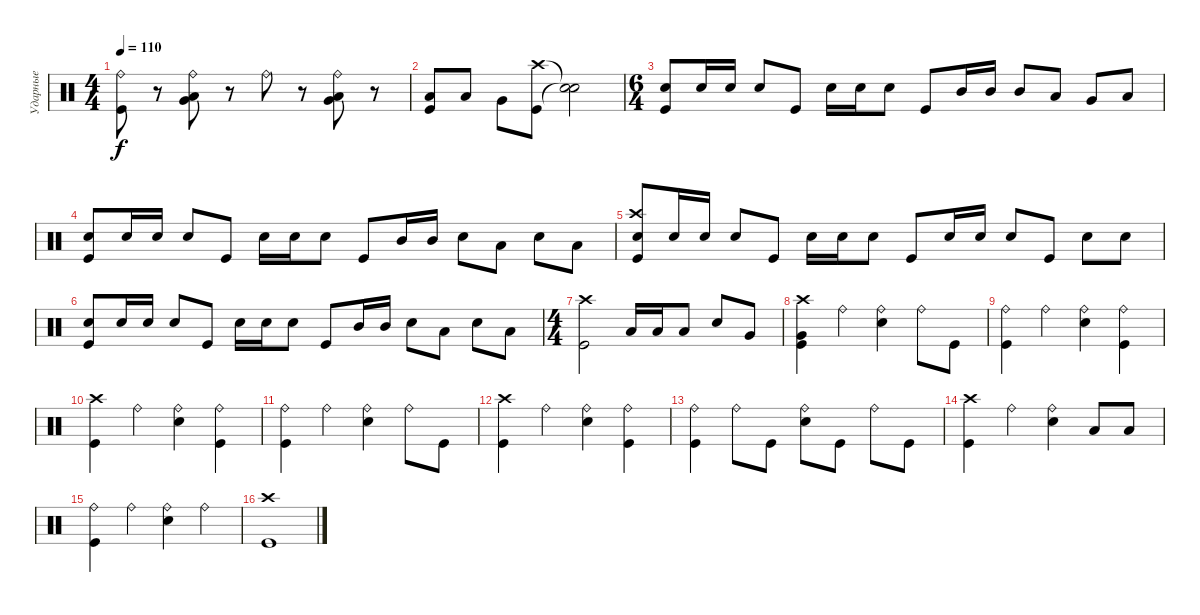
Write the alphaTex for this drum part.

\track ("Ударные" "Ударные") {instrument percussion}
\staff {score}
\articulation defaults
\ts (4 4)
\tempo 110
\clef neutral
\ks c
("Ride (bell)" "Kick (hit)").8{dy f} r.8 ("Ride (bell)" "Very Low Tom (hit)" "Low Tom (hit)").8 r.8 "Ride (bell)".8 r.8 ("Ride (bell)" "Very Low Tom (hit)" "Low Tom (hit)").8 r.8 |
("Low Tom (hit)" "Kick (hit)").8 "Low Tom (hit)".8 "Very Low Tom (hit)".8 ("Crash high (hit)" "Kick (hit)").8 ("Snare (hit)"{t} "Snare (hit)"{t}).2 |
\ts (6 4)
("Electric Snare (hit)" "Kick (hit)").8 "Electric Snare (hit)".16 "Electric Snare (hit)".16 "Electric Snare (hit)".8 "Kick (hit)".8 "Electric Snare (hit)".16 "Electric Snare (hit)".16 "Electric Snare (hit)".8 "Kick (hit)".8 "Mid Tom (hit)".16 "Mid Tom (hit)".16 "Mid Tom (hit)".8 "Low Tom (hit)".8 "Very Low Tom (hit)".8 "Low Tom (hit)".8 |
("Electric Snare (hit)" "Kick (hit)").8 "Electric Snare (hit)".16 "Electric Snare (hit)".16 "Electric Snare (hit)".8 "Kick (hit)".8 "Electric Snare (hit)".16 "Electric Snare (hit)".16 "Electric Snare (hit)".8 "Kick (hit)".8 "Mid Tom (hit)".16 "Mid Tom (hit)".16 "Electric Snare (hit)".8 "Low Tom (hit)".8 "Electric Snare (hit)".8 "Low Tom (hit)".8 |
("Crash high (hit)" "Electric Snare (hit)" "Kick (hit)").8 "Electric Snare (hit)".16 "Electric Snare (hit)".16 "Electric Snare (hit)".8 "Kick (hit)".8 "Electric Snare (hit)".16 "Electric Snare (hit)".16 "Electric Snare (hit)".8 "Kick (hit)".8 "Electric Snare (hit)".16 "Electric Snare (hit)".16 "Electric Snare (hit)".8 "Kick (hit)".8 "Electric Snare (hit)".8 "Electric Snare (hit)".8 |
("Electric Snare (hit)" "Kick (hit)").8 "Electric Snare (hit)".16 "Electric Snare (hit)".16 "Electric Snare (hit)".8 "Kick (hit)".8 "Electric Snare (hit)".16 "Electric Snare (hit)".16 "Electric Snare (hit)".8 "Kick (hit)".8 "Mid Tom (hit)".16 "Mid Tom (hit)".16 "Electric Snare (hit)".8 "Low Tom (hit)".8 "Electric Snare (hit)".8 "Low Tom (hit)".8 |
\ts (4 4)
("Crash high (hit)" "Kick (hit)").2 "Low Tom (hit)".16 "Low Tom (hit)".16 "Low Tom (hit)".8 "Electric Snare (hit)".8 "Very Low Tom (hit)".8 |
("Crash high (hit)" "Very Low Tom (hit)" "Kick (hit)").4 "Ride (bell)".4 ("Ride (bell)" "Electric Snare (hit)").4 "Ride (bell)".8 "Kick (hit)".8 |
("Ride (bell)" "Kick (hit)").4 "Ride (bell)".4 ("Ride (bell)" "Electric Snare (hit)").4 ("Ride (bell)" "Kick (hit)").4 |
("Crash high (hit)" "Kick (hit)").4 "Ride (bell)".4 ("Ride (bell)" "Electric Snare (hit)").4 ("Ride (bell)" "Kick (hit)").4 |
("Ride (bell)" "Kick (hit)").4 "Ride (bell)".4 ("Ride (bell)" "Electric Snare (hit)").4 "Ride (bell)".8 "Kick (hit)".8 |
("Crash high (hit)" "Kick (hit)").4 "Ride (bell)".4 ("Ride (bell)" "Electric Snare (hit)").4 ("Ride (bell)" "Kick (hit)").4 |
("Ride (bell)" "Kick (hit)").4 "Ride (bell)".8 "Kick (hit)".8 ("Ride (bell)" "Electric Snare (hit)").8 "Kick (hit)".8 "Ride (bell)".8 "Kick (hit)".8 |
("Crash high (hit)" "Kick (hit)").4 "Ride (bell)".4 ("Ride (bell)" "Electric Snare (hit)").4 "Low Tom (hit)".8 "Low Tom (hit)".8 |
("Ride (bell)" "Kick (hit)").4 "Ride (bell)".4 ("Ride (bell)" "Electric Snare (hit)").4 "Ride (bell)".4 |
("Crash high (hit)" "Kick (hit)").1
